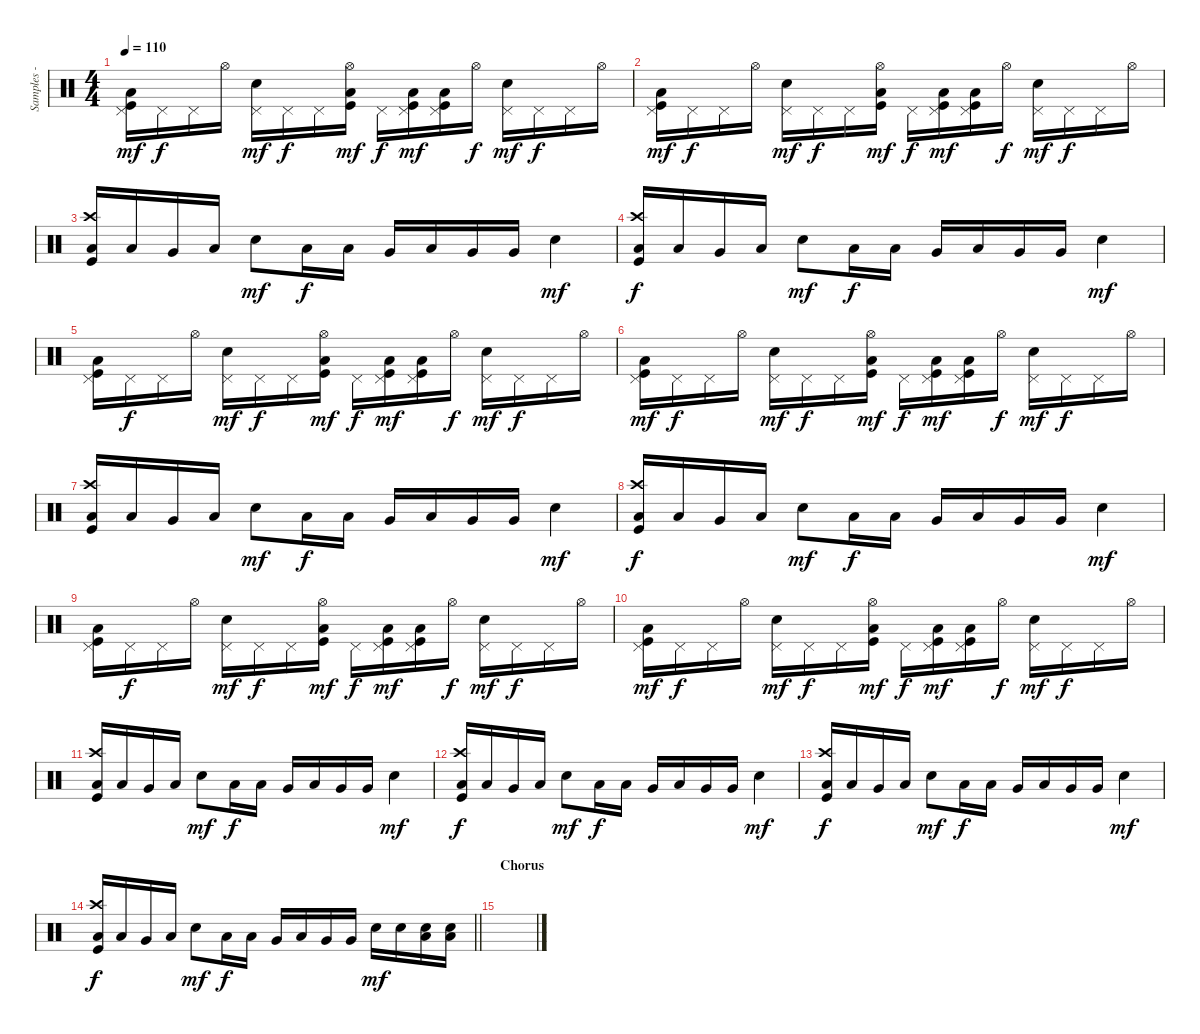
\track ("Samples - Joe Hahn" "Samples - ") {instrument percussion}
\staff {score}
\articulation defaults
\ts (4 4)
\tempo 110
\clef neutral
\ks c
("Pedal Hi-Hat (hit)" "Low Tom (hit)" "Kick (hit)").16{dy mf} "Pedal Hi-Hat (hit)".16{dy f} "Pedal Hi-Hat (hit)".16 "Hi-Hat (open)".16 ("Pedal Hi-Hat (hit)" "Electric Snare (hit)").16{dy mf} "Pedal Hi-Hat (hit)".16{dy f} "Pedal Hi-Hat (hit)".16 ("Hi-Hat (open)" "Low Tom (hit)" "Kick (hit)").16{dy mf} "Pedal Hi-Hat (hit)".16{dy f} ("Pedal Hi-Hat (hit)" "Low Tom (hit)" "Kick (hit)").16{dy mf} ("Pedal Hi-Hat (hit)" "Low Tom (hit)" "Kick (hit)").16 "Hi-Hat (open)".16{dy f} ("Pedal Hi-Hat (hit)" "Electric Snare (hit)").16{dy mf} "Pedal Hi-Hat (hit)".16{dy f} "Pedal Hi-Hat (hit)".16 "Hi-Hat (open)".16 |
("Pedal Hi-Hat (hit)" "Low Tom (hit)" "Kick (hit)").16{dy mf} "Pedal Hi-Hat (hit)".16{dy f} "Pedal Hi-Hat (hit)".16 "Hi-Hat (open)".16 ("Pedal Hi-Hat (hit)" "Electric Snare (hit)").16{dy mf} "Pedal Hi-Hat (hit)".16{dy f} "Pedal Hi-Hat (hit)".16 ("Hi-Hat (open)" "Low Tom (hit)" "Kick (hit)").16{dy mf} "Pedal Hi-Hat (hit)".16{dy f} ("Pedal Hi-Hat (hit)" "Low Tom (hit)" "Kick (hit)").16{dy mf} ("Pedal Hi-Hat (hit)" "Low Tom (hit)" "Kick (hit)").16 "Hi-Hat (open)".16{dy f} ("Pedal Hi-Hat (hit)" "Electric Snare (hit)").16{dy mf} "Pedal Hi-Hat (hit)".16{dy f} "Pedal Hi-Hat (hit)".16 "Hi-Hat (open)".16 |
("Crash high (hit)" "Low Floor Tom (hit)" "Kick (hit)").16 "Low Tom (hit)".16 "Very Low Tom (hit)".16 "Low Floor Tom (hit)".16 "Electric Snare (hit)".8{dy mf} "Low Floor Tom (hit)".16{dy f} "Low Floor Tom (hit)".16 "Very Low Tom (hit)".16 "Low Tom (hit)".16 "Very Low Tom (hit)".16 "Very Low Tom (hit)".16 "Electric Snare (hit)".4{dy mf} |
("Crash high (hit)" "Low Floor Tom (hit)" "Kick (hit)").16{dy f} "Low Tom (hit)".16 "Very Low Tom (hit)".16 "Low Floor Tom (hit)".16 "Electric Snare (hit)".8{dy mf} "Low Floor Tom (hit)".16{dy f} "Low Floor Tom (hit)".16 "Very Low Tom (hit)".16 "Low Tom (hit)".16 "Very Low Tom (hit)".16 "Very Low Tom (hit)".16 "Electric Snare (hit)".4{dy mf} |
("Pedal Hi-Hat (hit)" "Low Tom (hit)" "Kick (hit)").16 "Pedal Hi-Hat (hit)".16{dy f} "Pedal Hi-Hat (hit)".16 "Hi-Hat (open)".16 ("Pedal Hi-Hat (hit)" "Snare (hit) 2").16{dy mf} "Pedal Hi-Hat (hit)".16{dy f} "Pedal Hi-Hat (hit)".16 ("Hi-Hat (open)" "Low Tom (hit)" "Kick (hit)").16{dy mf} "Pedal Hi-Hat (hit)".16{dy f} ("Pedal Hi-Hat (hit)" "Low Tom (hit)" "Kick (hit)").16{dy mf} ("Pedal Hi-Hat (hit)" "Low Tom (hit)" "Kick (hit)").16 "Hi-Hat (open)".16{dy f} ("Pedal Hi-Hat (hit)" "Snare (hit) 2").16{dy mf} "Pedal Hi-Hat (hit)".16{dy f} "Pedal Hi-Hat (hit)".16 "Hi-Hat (open)".16 |
("Pedal Hi-Hat (hit)" "Low Tom (hit)" "Kick (hit)").16{dy mf} "Pedal Hi-Hat (hit)".16{dy f} "Pedal Hi-Hat (hit)".16 "Hi-Hat (open)".16 ("Pedal Hi-Hat (hit)" "Snare (hit) 2").16{dy mf} "Pedal Hi-Hat (hit)".16{dy f} "Pedal Hi-Hat (hit)".16 ("Hi-Hat (open)" "Low Tom (hit)" "Kick (hit)").16{dy mf} "Pedal Hi-Hat (hit)".16{dy f} ("Pedal Hi-Hat (hit)" "Low Tom (hit)" "Kick (hit)").16{dy mf} ("Pedal Hi-Hat (hit)" "Low Tom (hit)" "Kick (hit)").16 "Hi-Hat (open)".16{dy f} ("Pedal Hi-Hat (hit)" "Snare (hit) 2").16{dy mf} "Pedal Hi-Hat (hit)".16{dy f} "Pedal Hi-Hat (hit)".16 "Hi-Hat (open)".16 |
("Crash high (hit)" "Low Floor Tom (hit)" "Kick (hit)").16 "Low Tom (hit)".16 "Very Low Tom (hit)".16 "Low Floor Tom (hit)".16 "Electric Snare (hit)".8{dy mf} "Low Floor Tom (hit)".16{dy f} "Low Floor Tom (hit)".16 "Very Low Tom (hit)".16 "Low Tom (hit)".16 "Very Low Tom (hit)".16 "Very Low Tom (hit)".16 "Electric Snare (hit)".4{dy mf} |
("Crash high (hit)" "Low Floor Tom (hit)" "Kick (hit)").16{dy f} "Low Tom (hit)".16 "Very Low Tom (hit)".16 "Low Floor Tom (hit)".16 "Electric Snare (hit)".8{dy mf} "Low Floor Tom (hit)".16{dy f} "Low Floor Tom (hit)".16 "Very Low Tom (hit)".16 "Low Tom (hit)".16 "Very Low Tom (hit)".16 "Very Low Tom (hit)".16 "Electric Snare (hit)".4{dy mf} |
("Pedal Hi-Hat (hit)" "Low Tom (hit)" "Kick (hit)").16 "Pedal Hi-Hat (hit)".16{dy f} "Pedal Hi-Hat (hit)".16 "Hi-Hat (open)".16 ("Pedal Hi-Hat (hit)" "Snare (hit) 2").16{dy mf} "Pedal Hi-Hat (hit)".16{dy f} "Pedal Hi-Hat (hit)".16 ("Hi-Hat (open)" "Low Tom (hit)" "Kick (hit)").16{dy mf} "Pedal Hi-Hat (hit)".16{dy f} ("Pedal Hi-Hat (hit)" "Low Tom (hit)" "Kick (hit)").16{dy mf} ("Pedal Hi-Hat (hit)" "Low Tom (hit)" "Kick (hit)").16 "Hi-Hat (open)".16{dy f} ("Pedal Hi-Hat (hit)" "Snare (hit) 2").16{dy mf} "Pedal Hi-Hat (hit)".16{dy f} "Pedal Hi-Hat (hit)".16 "Hi-Hat (open)".16 |
("Pedal Hi-Hat (hit)" "Low Tom (hit)" "Kick (hit)").16{dy mf} "Pedal Hi-Hat (hit)".16{dy f} "Pedal Hi-Hat (hit)".16 "Hi-Hat (open)".16 ("Pedal Hi-Hat (hit)" "Snare (hit) 2").16{dy mf} "Pedal Hi-Hat (hit)".16{dy f} "Pedal Hi-Hat (hit)".16 ("Hi-Hat (open)" "Low Tom (hit)" "Kick (hit)").16{dy mf} "Pedal Hi-Hat (hit)".16{dy f} ("Pedal Hi-Hat (hit)" "Low Tom (hit)" "Kick (hit)").16{dy mf} ("Pedal Hi-Hat (hit)" "Low Tom (hit)" "Kick (hit)").16 "Hi-Hat (open)".16{dy f} ("Pedal Hi-Hat (hit)" "Snare (hit) 2").16{dy mf} "Pedal Hi-Hat (hit)".16{dy f} "Pedal Hi-Hat (hit)".16 "Hi-Hat (open)".16 |
("Crash high (hit)" "Low Floor Tom (hit)" "Kick (hit)").16 "Low Tom (hit)".16 "Very Low Tom (hit)".16 "Low Floor Tom (hit)".16 "Electric Snare (hit)".8{dy mf} "Low Floor Tom (hit)".16{dy f} "Low Floor Tom (hit)".16 "Very Low Tom (hit)".16 "Low Tom (hit)".16 "Very Low Tom (hit)".16 "Very Low Tom (hit)".16 "Electric Snare (hit)".4{dy mf} |
("Crash high (hit)" "Low Floor Tom (hit)" "Kick (hit)").16{dy f} "Low Tom (hit)".16 "Very Low Tom (hit)".16 "Low Floor Tom (hit)".16 "Electric Snare (hit)".8{dy mf} "Low Floor Tom (hit)".16{dy f} "Low Floor Tom (hit)".16 "Very Low Tom (hit)".16 "Low Tom (hit)".16 "Very Low Tom (hit)".16 "Very Low Tom (hit)".16 "Electric Snare (hit)".4{dy mf} |
("Crash high (hit)" "Low Floor Tom (hit)" "Kick (hit)").16{dy f} "Low Tom (hit)".16 "Very Low Tom (hit)".16 "Low Floor Tom (hit)".16 "Electric Snare (hit)".8{dy mf} "Low Floor Tom (hit)".16{dy f} "Low Floor Tom (hit)".16 "Very Low Tom (hit)".16 "Low Tom (hit)".16 "Very Low Tom (hit)".16 "Very Low Tom (hit)".16 "Electric Snare (hit)".4{dy mf} |
\barLineRight lightlight
("Crash high (hit)" "Low Floor Tom (hit)" "Kick (hit)").16{dy f} "Low Tom (hit)".16 "Very Low Tom (hit)".16 "Low Floor Tom (hit)".16 "Electric Snare (hit)".8{dy mf} "Low Floor Tom (hit)".16{dy f} "Low Floor Tom (hit)".16 "Very Low Tom (hit)".16 "Low Tom (hit)".16 "Very Low Tom (hit)".16 "Very Low Tom (hit)".16 "Electric Snare (hit)".16{dy mf} "Electric Snare (hit)".16 ("Electric Snare (hit)" "Low Tom (hit)").16 ("Electric Snare (hit)" "Low Tom (hit)").16 |
\section ("" "Chorus")
